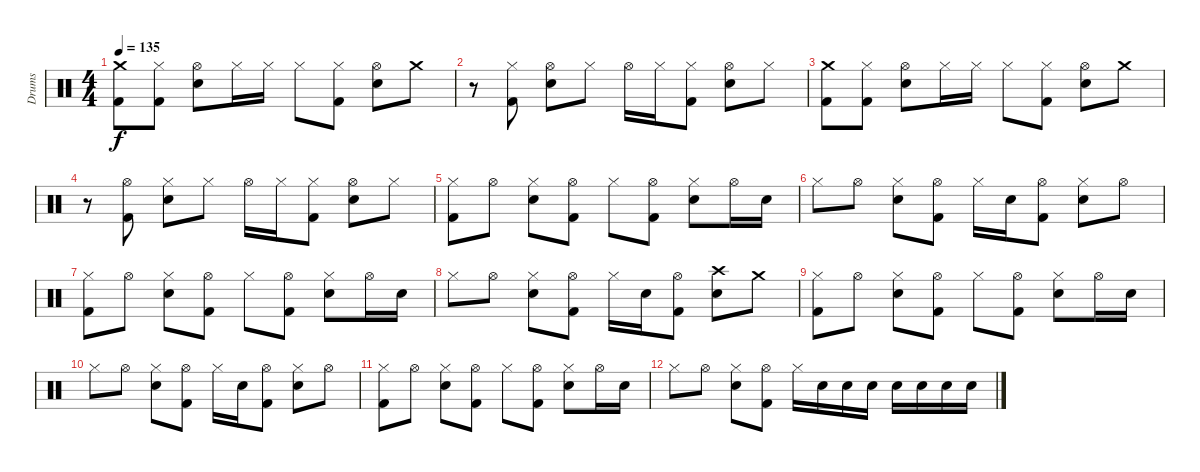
\track ("Drums" "Drums") {instrument percussion}
\staff {score}
\articulation defaults
\ts (4 4)
\tempo 135
\clef neutral
\ks c
("Crash medium (hit)" "Kick (hit) 2").8{dy f} ("Hi-Hat (closed)" "Kick (hit) 2").8 ("Hi-Hat (open)" "Electric Snare (hit)").8 "Hi-Hat (closed)".16 "Hi-Hat (closed)".16 "Hi-Hat (closed)".8 ("Hi-Hat (closed)" "Kick (hit) 2").8 ("Hi-Hat (open)" "Electric Snare (hit)").8 "Crash medium (hit)".8 |
r.8 ("Hi-Hat (closed)" "Kick (hit) 2").8 ("Hi-Hat (open)" "Electric Snare (hit)").8 "Hi-Hat (closed)".8 "Hi-Hat (open)".16 "Hi-Hat (closed)".16 ("Hi-Hat (closed)" "Kick (hit) 2").8 ("Hi-Hat (open)" "Electric Snare (hit)").8 "Hi-Hat (closed)".8 |
("Crash medium (hit)" "Kick (hit) 2").8 ("Hi-Hat (closed)" "Kick (hit) 2").8 ("Hi-Hat (open)" "Electric Snare (hit)").8 "Hi-Hat (closed)".16 "Hi-Hat (closed)".16 "Hi-Hat (closed)".8 ("Hi-Hat (closed)" "Kick (hit) 2").8 ("Hi-Hat (open)" "Electric Snare (hit)").8 "Crash medium (hit)".8 |
r.8 ("Hi-Hat (open)" "Kick (hit) 2").8 ("Hi-Hat (closed)" "Electric Snare (hit)").8 "Hi-Hat (closed)".8 "Hi-Hat (open)".16 "Hi-Hat (closed)".16 ("Hi-Hat (closed)" "Kick (hit) 2").8 ("Hi-Hat (open)" "Electric Snare (hit)").8 "Hi-Hat (closed)".8 |
("Hi-Hat (closed)" "Kick (hit) 2").8 "Hi-Hat (open)".8 ("Hi-Hat (closed)" "Electric Snare (hit)").8 ("Hi-Hat (open)" "Kick (hit) 2").8 "Hi-Hat (closed)".8 ("Hi-Hat (open)" "Kick (hit) 2").8 ("Hi-Hat (closed)" "Electric Snare (hit)").8 "Hi-Hat (open)".16 "Electric Snare (hit)".16 |
"Hi-Hat (closed)".8 "Hi-Hat (open)".8 ("Hi-Hat (closed)" "Electric Snare (hit)").8 ("Hi-Hat (open)" "Kick (hit) 2").8 "Hi-Hat (closed)".16 "Electric Snare (hit)".16 ("Hi-Hat (open)" "Kick (hit) 2").8 ("Hi-Hat (closed)" "Electric Snare (hit)").8 "Hi-Hat (open)".8 |
("Hi-Hat (closed)" "Kick (hit) 2").8 "Hi-Hat (open)".8 ("Hi-Hat (closed)" "Electric Snare (hit)").8 ("Hi-Hat (open)" "Kick (hit) 2").8 "Hi-Hat (closed)".8 ("Hi-Hat (open)" "Kick (hit) 2").8 ("Hi-Hat (closed)" "Electric Snare (hit)").8 "Hi-Hat (open)".16 "Electric Snare (hit)".16 |
"Hi-Hat (closed)".8 "Hi-Hat (open)".8 ("Hi-Hat (closed)" "Electric Snare (hit)").8 ("Hi-Hat (open)" "Kick (hit) 2").8 "Hi-Hat (closed)".16 "Electric Snare (hit)".16 ("Hi-Hat (open)" "Kick (hit) 2").8 ("Crash high (hit)" "Electric Snare (hit)").8 "Crash medium (hit)".8 |
("Hi-Hat (closed)" "Kick (hit) 2").8 "Hi-Hat (open)".8 ("Hi-Hat (closed)" "Electric Snare (hit)").8 ("Hi-Hat (open)" "Kick (hit) 2").8 "Hi-Hat (closed)".8 ("Hi-Hat (open)" "Kick (hit) 2").8 ("Hi-Hat (closed)" "Electric Snare (hit)").8 "Hi-Hat (open)".16 "Electric Snare (hit)".16 |
"Hi-Hat (closed)".8 "Hi-Hat (open)".8 ("Hi-Hat (closed)" "Electric Snare (hit)").8 ("Hi-Hat (open)" "Kick (hit) 2").8 "Hi-Hat (closed)".16 "Electric Snare (hit)".16 ("Hi-Hat (open)" "Kick (hit) 2").8 ("Hi-Hat (closed)" "Electric Snare (hit)").8 "Hi-Hat (open)".8 |
("Hi-Hat (closed)" "Kick (hit) 2").8 "Hi-Hat (open)".8 ("Hi-Hat (closed)" "Electric Snare (hit)").8 ("Hi-Hat (open)" "Kick (hit) 2").8 "Hi-Hat (closed)".8 ("Hi-Hat (open)" "Kick (hit) 2").8 ("Hi-Hat (closed)" "Electric Snare (hit)").8 "Hi-Hat (open)".16 "Electric Snare (hit)".16 |
"Hi-Hat (closed)".8 "Hi-Hat (open)".8 ("Hi-Hat (closed)" "Electric Snare (hit)").8 ("Hi-Hat (open)" "Kick (hit) 2").8 "Hi-Hat (closed)".16 "Electric Snare (hit)".16 "Electric Snare (hit)".16 "Electric Snare (hit)".16 "Electric Snare (hit)".16 "Electric Snare (hit)".16 "Electric Snare (hit)".16 "Electric Snare (hit)".16
